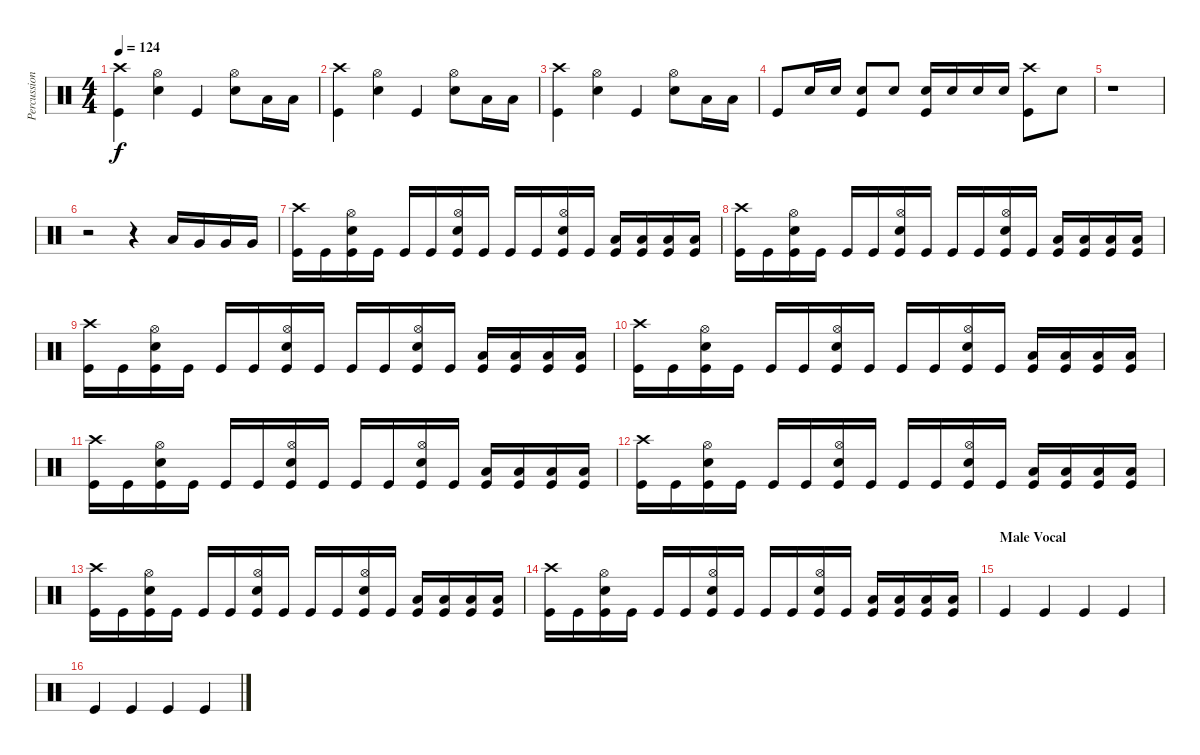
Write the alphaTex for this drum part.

\track ("Percussion" "Percussion") {instrument percussion}
\staff {score}
\articulation defaults
\ts (4 4)
\tempo 124
\clef neutral
\ks c
("Crash high (hit)" "Kick (hit)").4{dy f} ("Hi-Hat (open)" "Snare (hit) 2").4 "Kick (hit)".4 ("Hi-Hat (open)" "Snare (hit) 2").8 "Low Tom (hit)".16 "Low Tom (hit)".16 |
("Crash high (hit)" "Kick (hit)").4 ("Hi-Hat (open)" "Snare (hit) 2").4 "Kick (hit)".4 ("Hi-Hat (open)" "Snare (hit) 2").8 "Low Tom (hit)".16 "Low Tom (hit)".16 |
("Crash high (hit)" "Kick (hit)").4 ("Hi-Hat (open)" "Snare (hit) 2").4 "Kick (hit)".4 ("Hi-Hat (open)" "Snare (hit) 2").8 "Low Tom (hit)".16 "Low Tom (hit)".16 |
"Kick (hit)".8 "Snare (hit) 2".16 "Snare (hit) 2".16 ("Snare (hit) 2" "Kick (hit)").8 "Snare (hit) 2".8 ("Snare (hit) 2" "Kick (hit)").16 "Snare (hit) 2".16 "Snare (hit) 2".16 "Snare (hit) 2".16 ("Crash high (hit)" "Kick (hit)").8 "Snare (hit) 2".8 |
r.1 |
r.2 r.4 "Low Tom (hit)".16 "Very Low Tom (hit)".16 "Very Low Tom (hit)".16 "Very Low Tom (hit)".16 |
("Crash high (hit)" "Kick (hit)").16 "Kick (hit)".16 ("Hi-Hat (open)" "Snare (hit) 2" "Kick (hit)").16 "Kick (hit)".16 "Kick (hit)".16 "Kick (hit)".16 ("Hi-Hat (open)" "Snare (hit) 2" "Kick (hit)").16 "Kick (hit)".16 "Kick (hit)".16 "Kick (hit)".16 ("Hi-Hat (open)" "Snare (hit) 2" "Kick (hit)").16 "Kick (hit)".16 ("Low Tom (hit)" "Kick (hit)").16 ("Low Tom (hit)" "Kick (hit)").16 ("Low Tom (hit)" "Kick (hit)").16 ("Low Tom (hit)" "Kick (hit)").16 |
("Crash high (hit)" "Kick (hit)").16 "Kick (hit)".16 ("Hi-Hat (open)" "Snare (hit) 2" "Kick (hit)").16 "Kick (hit)".16 "Kick (hit)".16 "Kick (hit)".16 ("Hi-Hat (open)" "Snare (hit) 2" "Kick (hit)").16 "Kick (hit)".16 "Kick (hit)".16 "Kick (hit)".16 ("Hi-Hat (open)" "Snare (hit) 2" "Kick (hit)").16 "Kick (hit)".16 ("Low Tom (hit)" "Kick (hit)").16 ("Low Tom (hit)" "Kick (hit)").16 ("Low Tom (hit)" "Kick (hit)").16 ("Low Tom (hit)" "Kick (hit)").16 |
("Crash high (hit)" "Kick (hit)").16 "Kick (hit)".16 ("Hi-Hat (open)" "Snare (hit) 2" "Kick (hit)").16 "Kick (hit)".16 "Kick (hit)".16 "Kick (hit)".16 ("Hi-Hat (open)" "Snare (hit) 2" "Kick (hit)").16 "Kick (hit)".16 "Kick (hit)".16 "Kick (hit)".16 ("Hi-Hat (open)" "Snare (hit) 2" "Kick (hit)").16 "Kick (hit)".16 ("Low Tom (hit)" "Kick (hit)").16 ("Low Tom (hit)" "Kick (hit)").16 ("Low Tom (hit)" "Kick (hit)").16 ("Low Tom (hit)" "Kick (hit)").16 |
("Crash high (hit)" "Kick (hit)").16 "Kick (hit)".16 ("Hi-Hat (open)" "Snare (hit) 2" "Kick (hit)").16 "Kick (hit)".16 "Kick (hit)".16 "Kick (hit)".16 ("Hi-Hat (open)" "Snare (hit) 2" "Kick (hit)").16 "Kick (hit)".16 "Kick (hit)".16 "Kick (hit)".16 ("Hi-Hat (open)" "Snare (hit) 2" "Kick (hit)").16 "Kick (hit)".16 ("Low Tom (hit)" "Kick (hit)").16 ("Low Tom (hit)" "Kick (hit)").16 ("Low Tom (hit)" "Kick (hit)").16 ("Low Tom (hit)" "Kick (hit)").16 |
("Crash high (hit)" "Kick (hit)").16 "Kick (hit)".16 ("Hi-Hat (open)" "Snare (hit) 2" "Kick (hit)").16 "Kick (hit)".16 "Kick (hit)".16 "Kick (hit)".16 ("Hi-Hat (open)" "Snare (hit) 2" "Kick (hit)").16 "Kick (hit)".16 "Kick (hit)".16 "Kick (hit)".16 ("Hi-Hat (open)" "Snare (hit) 2" "Kick (hit)").16 "Kick (hit)".16 ("Low Tom (hit)" "Kick (hit)").16 ("Low Tom (hit)" "Kick (hit)").16 ("Low Tom (hit)" "Kick (hit)").16 ("Low Tom (hit)" "Kick (hit)").16 |
("Crash high (hit)" "Kick (hit)").16 "Kick (hit)".16 ("Hi-Hat (open)" "Snare (hit) 2" "Kick (hit)").16 "Kick (hit)".16 "Kick (hit)".16 "Kick (hit)".16 ("Hi-Hat (open)" "Snare (hit) 2" "Kick (hit)").16 "Kick (hit)".16 "Kick (hit)".16 "Kick (hit)".16 ("Hi-Hat (open)" "Snare (hit) 2" "Kick (hit)").16 "Kick (hit)".16 ("Low Tom (hit)" "Kick (hit)").16 ("Low Tom (hit)" "Kick (hit)").16 ("Low Tom (hit)" "Kick (hit)").16 ("Low Tom (hit)" "Kick (hit)").16 |
("Crash high (hit)" "Kick (hit)").16 "Kick (hit)".16 ("Hi-Hat (open)" "Snare (hit) 2" "Kick (hit)").16 "Kick (hit)".16 "Kick (hit)".16 "Kick (hit)".16 ("Hi-Hat (open)" "Snare (hit) 2" "Kick (hit)").16 "Kick (hit)".16 "Kick (hit)".16 "Kick (hit)".16 ("Hi-Hat (open)" "Snare (hit) 2" "Kick (hit)").16 "Kick (hit)".16 ("Low Tom (hit)" "Kick (hit)").16 ("Low Tom (hit)" "Kick (hit)").16 ("Low Tom (hit)" "Kick (hit)").16 ("Low Tom (hit)" "Kick (hit)").16 |
("Crash high (hit)" "Kick (hit)").16 "Kick (hit)".16 ("Hi-Hat (open)" "Snare (hit) 2" "Kick (hit)").16 "Kick (hit)".16 "Kick (hit)".16 "Kick (hit)".16 ("Hi-Hat (open)" "Snare (hit) 2" "Kick (hit)").16 "Kick (hit)".16 "Kick (hit)".16 "Kick (hit)".16 ("Hi-Hat (open)" "Snare (hit) 2" "Kick (hit)").16 "Kick (hit)".16 ("Low Tom (hit)" "Kick (hit)").16 ("Low Tom (hit)" "Kick (hit)").16 ("Low Tom (hit)" "Kick (hit)").16 ("Low Tom (hit)" "Kick (hit)").16 |
\section ("" "Male Vocal")
"Kick (hit)".4 "Kick (hit)".4 "Kick (hit)".4 "Kick (hit)".4 |
"Kick (hit)".4 "Kick (hit)".4 "Kick (hit)".4 "Kick (hit)".4
